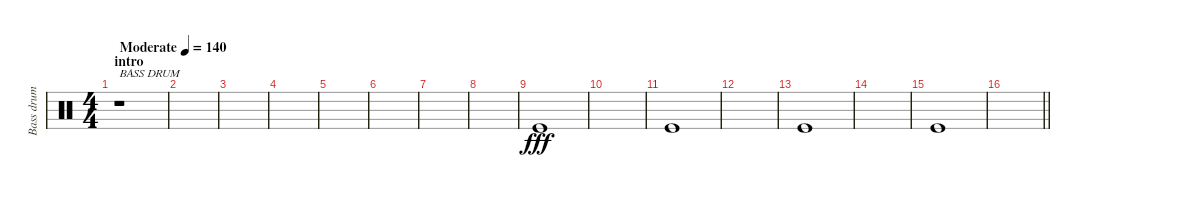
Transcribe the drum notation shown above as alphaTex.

\track ("Bass drum " "Bass drum ") {instrument percussion}
\staff {score}
\articulation defaults
\ts (4 4)
\section ("" "intro")
\tempo (140 "Moderate")
\clef neutral
\ks c
r.1{txt "BASS DRUM " dy fff} |
|
|
|
|
|
|
|
"Kick (hit)".1 |
|
"Kick (hit)".1 |
|
"Kick (hit)".1 |
|
"Kick (hit)".1 |
\barLineRight lightlight
